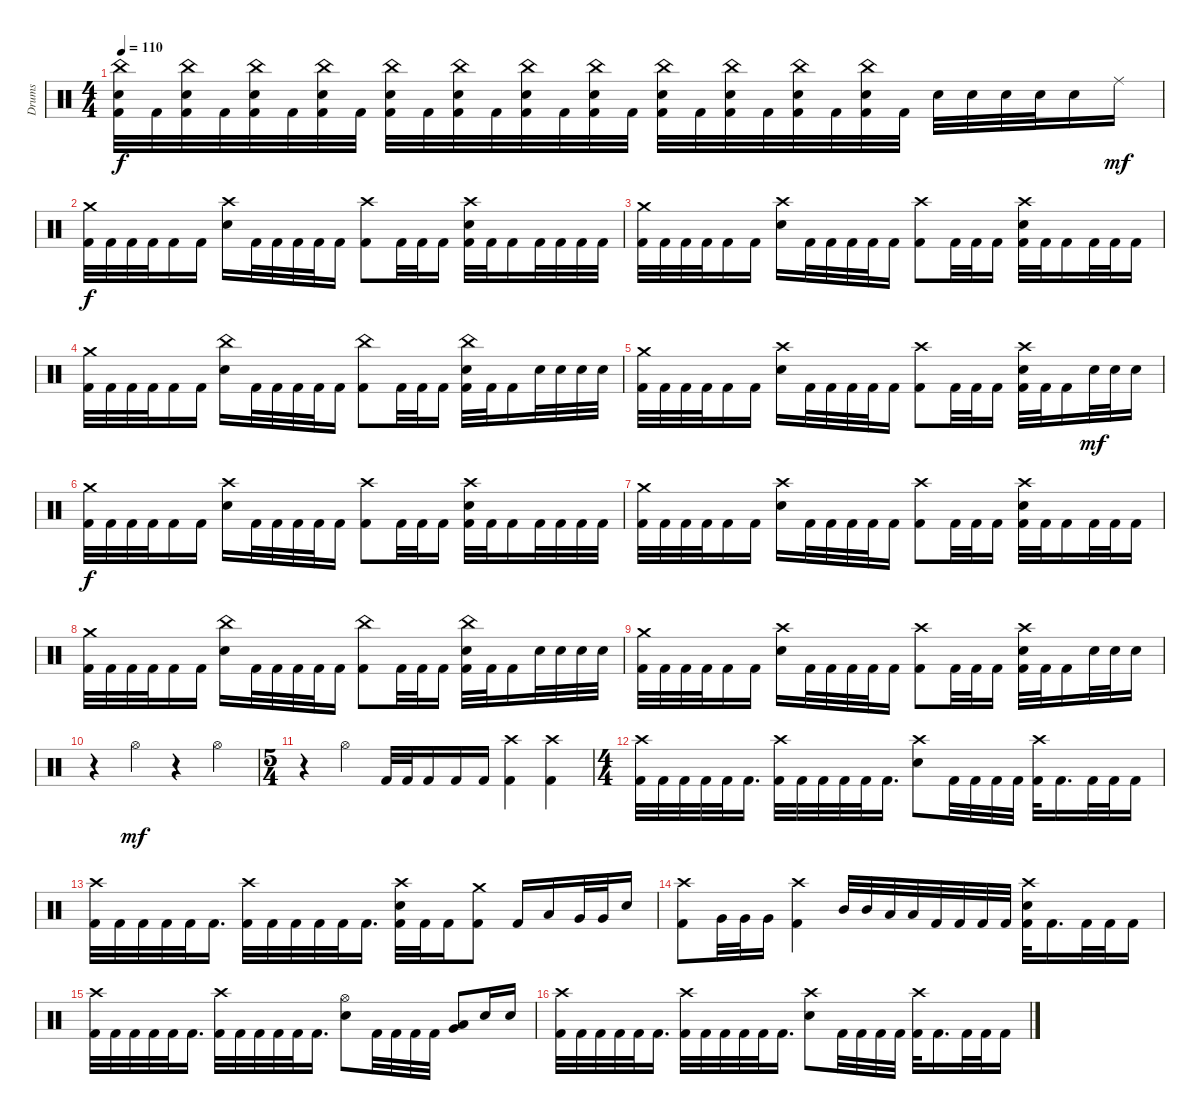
\track ("Drums" "Drums") {instrument percussion}
\staff {score}
\articulation defaults
\ts (4 4)
\tempo 110
\clef neutral
\ks c
("China (hit)" "Electric Snare (hit)" "Kick (hit) 2").32{dy f} "Kick (hit) 2".32 ("China (hit)" "Electric Snare (hit)" "Kick (hit) 2").32 "Kick (hit) 2".32 ("China (hit)" "Electric Snare (hit)" "Kick (hit) 2").32 "Kick (hit) 2".32 ("China (hit)" "Electric Snare (hit)" "Kick (hit) 2").32 "Kick (hit) 2".32 ("China (hit)" "Electric Snare (hit)" "Kick (hit) 2").32 "Kick (hit) 2".32 ("China (hit)" "Electric Snare (hit)" "Kick (hit) 2").32 "Kick (hit) 2".32 ("China (hit)" "Electric Snare (hit)" "Kick (hit) 2").32 "Kick (hit) 2".32 ("China (hit)" "Electric Snare (hit)" "Kick (hit) 2").32 "Kick (hit) 2".32 ("China (hit)" "Electric Snare (hit)" "Kick (hit) 2").32 "Kick (hit) 2".32 ("China (hit)" "Electric Snare (hit)" "Kick (hit) 2").32 "Kick (hit) 2".32 ("China (hit)" "Electric Snare (hit)" "Kick (hit) 2").32 "Kick (hit) 2".32 ("China (hit)" "Electric Snare (hit)" "Kick (hit) 2").32 "Kick (hit) 2".32 "Electric Snare (hit)".32 "Electric Snare (hit)".32 "Electric Snare (hit)".32 "Electric Snare (hit)".32 "Electric Snare (hit)".16 "Ride (middle)".16{dy mf} |
("Crash medium (hit)" "Kick (hit) 2").32{dy f} "Kick (hit) 2".32 "Kick (hit) 2".32 "Kick (hit) 2".32 "Kick (hit) 2".16 "Kick (hit) 2".16 ("Crash high (hit)" "Electric Snare (hit)").16 "Kick (hit) 2".32 "Kick (hit) 2".32 "Kick (hit) 2".32 "Kick (hit) 2".32 "Kick (hit) 2".16 ("Crash high (hit)" "Kick (hit) 2").8 "Kick (hit) 2".32 "Kick (hit) 2".32 "Kick (hit) 2".16 ("Crash high (hit)" "Electric Snare (hit)" "Kick (hit) 2").32 "Kick (hit) 2".32 "Kick (hit) 2".16 "Kick (hit) 2".32 "Kick (hit) 2".32 "Kick (hit) 2".32 "Kick (hit) 2".32 |
("Crash medium (hit)" "Kick (hit) 2").32 "Kick (hit) 2".32 "Kick (hit) 2".32 "Kick (hit) 2".32 "Kick (hit) 2".16 "Kick (hit) 2".16 ("Crash high (hit)" "Electric Snare (hit)").16 "Kick (hit) 2".32 "Kick (hit) 2".32 "Kick (hit) 2".32 "Kick (hit) 2".32 "Kick (hit) 2".16 ("Crash high (hit)" "Kick (hit) 2").8 "Kick (hit) 2".32 "Kick (hit) 2".32 "Kick (hit) 2".16 ("Crash high (hit)" "Electric Snare (hit)" "Kick (hit) 2").32 "Kick (hit) 2".32 "Kick (hit) 2".16 "Kick (hit) 2".32 "Kick (hit) 2".32 "Kick (hit) 2".16 |
("Crash medium (hit)" "Kick (hit) 2").32 "Kick (hit) 2".32 "Kick (hit) 2".32 "Kick (hit) 2".32 "Kick (hit) 2".16 "Kick (hit) 2".16 ("China (hit)" "Electric Snare (hit)").16 "Kick (hit) 2".32 "Kick (hit) 2".32 "Kick (hit) 2".32 "Kick (hit) 2".32 "Kick (hit) 2".16 ("China (hit)" "Kick (hit) 2").8 "Kick (hit) 2".32 "Kick (hit) 2".32 "Kick (hit) 2".16 ("China (hit)" "Electric Snare (hit)" "Kick (hit) 2").32 "Kick (hit) 2".32 "Kick (hit) 2".16 "Electric Snare (hit)".32 "Electric Snare (hit)".32 "Electric Snare (hit)".32 "Electric Snare (hit)".32 |
("Crash medium (hit)" "Kick (hit) 2").32 "Kick (hit) 2".32 "Kick (hit) 2".32 "Kick (hit) 2".32 "Kick (hit) 2".16 "Kick (hit) 2".16 ("Crash high (hit)" "Electric Snare (hit)").16 "Kick (hit) 2".32 "Kick (hit) 2".32 "Kick (hit) 2".32 "Kick (hit) 2".32 "Kick (hit) 2".16 ("Crash high (hit)" "Kick (hit) 2").8 "Kick (hit) 2".32 "Kick (hit) 2".32 "Kick (hit) 2".16 ("Crash high (hit)" "Electric Snare (hit)" "Kick (hit) 2").32 "Kick (hit) 2".32 "Kick (hit) 2".16 "Electric Snare (hit)".32{dy mf} "Electric Snare (hit)".32 "Electric Snare (hit)".16 |
("Crash medium (hit)" "Kick (hit) 2").32{dy f} "Kick (hit) 2".32 "Kick (hit) 2".32 "Kick (hit) 2".32 "Kick (hit) 2".16 "Kick (hit) 2".16 ("Crash high (hit)" "Electric Snare (hit)").16 "Kick (hit) 2".32 "Kick (hit) 2".32 "Kick (hit) 2".32 "Kick (hit) 2".32 "Kick (hit) 2".16 ("Crash high (hit)" "Kick (hit) 2").8 "Kick (hit) 2".32 "Kick (hit) 2".32 "Kick (hit) 2".16 ("Crash high (hit)" "Electric Snare (hit)" "Kick (hit) 2").32 "Kick (hit) 2".32 "Kick (hit) 2".16 "Kick (hit) 2".32 "Kick (hit) 2".32 "Kick (hit) 2".32 "Kick (hit) 2".32 |
("Crash medium (hit)" "Kick (hit) 2").32 "Kick (hit) 2".32 "Kick (hit) 2".32 "Kick (hit) 2".32 "Kick (hit) 2".16 "Kick (hit) 2".16 ("Crash high (hit)" "Electric Snare (hit)").16 "Kick (hit) 2".32 "Kick (hit) 2".32 "Kick (hit) 2".32 "Kick (hit) 2".32 "Kick (hit) 2".16 ("Crash high (hit)" "Kick (hit) 2").8 "Kick (hit) 2".32 "Kick (hit) 2".32 "Kick (hit) 2".16 ("Crash high (hit)" "Electric Snare (hit)" "Kick (hit) 2").32 "Kick (hit) 2".32 "Kick (hit) 2".16 "Kick (hit) 2".32 "Kick (hit) 2".32 "Kick (hit) 2".16 |
("Crash medium (hit)" "Kick (hit) 2").32 "Kick (hit) 2".32 "Kick (hit) 2".32 "Kick (hit) 2".32 "Kick (hit) 2".16 "Kick (hit) 2".16 ("China (hit)" "Electric Snare (hit)").16 "Kick (hit) 2".32 "Kick (hit) 2".32 "Kick (hit) 2".32 "Kick (hit) 2".32 "Kick (hit) 2".16 ("China (hit)" "Kick (hit) 2").8 "Kick (hit) 2".32 "Kick (hit) 2".32 "Kick (hit) 2".16 ("China (hit)" "Electric Snare (hit)" "Kick (hit) 2").32 "Kick (hit) 2".32 "Kick (hit) 2".16 "Electric Snare (hit)".32 "Electric Snare (hit)".32 "Electric Snare (hit)".32 "Electric Snare (hit)".32 |
("Crash medium (hit)" "Kick (hit) 2").32 "Kick (hit) 2".32 "Kick (hit) 2".32 "Kick (hit) 2".32 "Kick (hit) 2".16 "Kick (hit) 2".16 ("Crash high (hit)" "Electric Snare (hit)").16 "Kick (hit) 2".32 "Kick (hit) 2".32 "Kick (hit) 2".32 "Kick (hit) 2".32 "Kick (hit) 2".16 ("Crash high (hit)" "Kick (hit) 2").8 "Kick (hit) 2".32 "Kick (hit) 2".32 "Kick (hit) 2".16 ("Crash high (hit)" "Electric Snare (hit)" "Kick (hit) 2").32 "Kick (hit) 2".32 "Kick (hit) 2".16 "Electric Snare (hit)".32 "Electric Snare (hit)".32 "Electric Snare (hit)".16 |
r.4 "Hi-Hat (open)".4{dy mf} r.4 "Hi-Hat (open)".4 |
\ts (5 4)
r.4 "Hi-Hat (open)".4 "Kick (hit) 2".32 "Kick (hit) 2".32 "Kick (hit) 2".16 "Kick (hit) 2".16 "Kick (hit) 2".16 ("Crash high (hit)" "Kick (hit) 2").4 ("Crash high (hit)" "Kick (hit) 2").4 |
\ts (4 4)
("Crash high (hit)" "Kick (hit) 2").32 "Kick (hit) 2".32 "Kick (hit) 2".32 "Kick (hit) 2".32 "Kick (hit) 2".32 "Kick (hit) 2".16{d} ("Crash high (hit)" "Kick (hit) 2").32 "Kick (hit) 2".32 "Kick (hit) 2".32 "Kick (hit) 2".32 "Kick (hit) 2".32 "Kick (hit) 2".16{d} ("Crash high (hit)" "Electric Snare (hit)").8 "Kick (hit) 2".32 "Kick (hit) 2".32 "Kick (hit) 2".32 "Kick (hit) 2".32 ("Crash high (hit)" "Kick (hit) 2").32 "Kick (hit) 2".16{d} "Kick (hit) 2".32 "Kick (hit) 2".32 "Kick (hit) 2".16 |
("Crash high (hit)" "Kick (hit) 2").32 "Kick (hit) 2".32 "Kick (hit) 2".32 "Kick (hit) 2".32 "Kick (hit) 2".32 "Kick (hit) 2".16{d} ("Crash high (hit)" "Kick (hit) 2").32 "Kick (hit) 2".32 "Kick (hit) 2".32 "Kick (hit) 2".32 "Kick (hit) 2".32 "Kick (hit) 2".16{d} ("Crash high (hit)" "Electric Snare (hit)" "Kick (hit) 2").32 "Kick (hit) 2".32 "Kick (hit) 2".16 ("Crash medium (hit)" "Kick (hit) 2").8 "Kick (hit) 2".16 "Low Tom (hit)".16 "Very Low Tom (hit)".32 "Very Low Tom (hit)".32 "Electric Snare (hit)".16 |
("Crash high (hit)" "Kick (hit) 2").8 "Very Low Tom (hit)".32 "Very Low Tom (hit)".32 "Very Low Tom (hit)".16 ("Crash high (hit)" "Kick (hit) 2").4 "Mid Tom (hit)".32 "Mid Tom (hit)".32 "Low Tom (hit)".32 "Low Tom (hit)".32 "Kick (hit) 2".32 "Kick (hit) 2".32 "Kick (hit) 2".32 "Kick (hit) 2".32 ("Crash high (hit)" "Electric Snare (hit)" "Kick (hit) 2").32 "Kick (hit) 2".16{d} "Kick (hit) 2".32 "Kick (hit) 2".32 "Kick (hit) 2".16 |
("Crash high (hit)" "Kick (hit) 2").32 "Kick (hit) 2".32 "Kick (hit) 2".32 "Kick (hit) 2".32 "Kick (hit) 2".32 "Kick (hit) 2".16{d} ("Crash high (hit)" "Kick (hit) 2").32 "Kick (hit) 2".32 "Kick (hit) 2".32 "Kick (hit) 2".32 "Kick (hit) 2".32 "Kick (hit) 2".16{d} ("Hi-Hat (open)" "Electric Snare (hit)").8 "Kick (hit) 2".32 "Kick (hit) 2".32 "Kick (hit) 2".32 "Kick (hit) 2".32 ("Very Low Tom (hit)" "Low Tom (hit)").8 "Electric Snare (hit)".16 "Electric Snare (hit)".16 |
("Crash high (hit)" "Kick (hit) 2").32 "Kick (hit) 2".32 "Kick (hit) 2".32 "Kick (hit) 2".32 "Kick (hit) 2".32 "Kick (hit) 2".16{d} ("Crash high (hit)" "Kick (hit) 2").32 "Kick (hit) 2".32 "Kick (hit) 2".32 "Kick (hit) 2".32 "Kick (hit) 2".32 "Kick (hit) 2".16{d} ("Crash high (hit)" "Electric Snare (hit)").8 "Kick (hit) 2".32 "Kick (hit) 2".32 "Kick (hit) 2".32 "Kick (hit) 2".32 ("Crash high (hit)" "Kick (hit) 2").32 "Kick (hit) 2".16{d} "Kick (hit) 2".32 "Kick (hit) 2".32 "Kick (hit) 2".16
